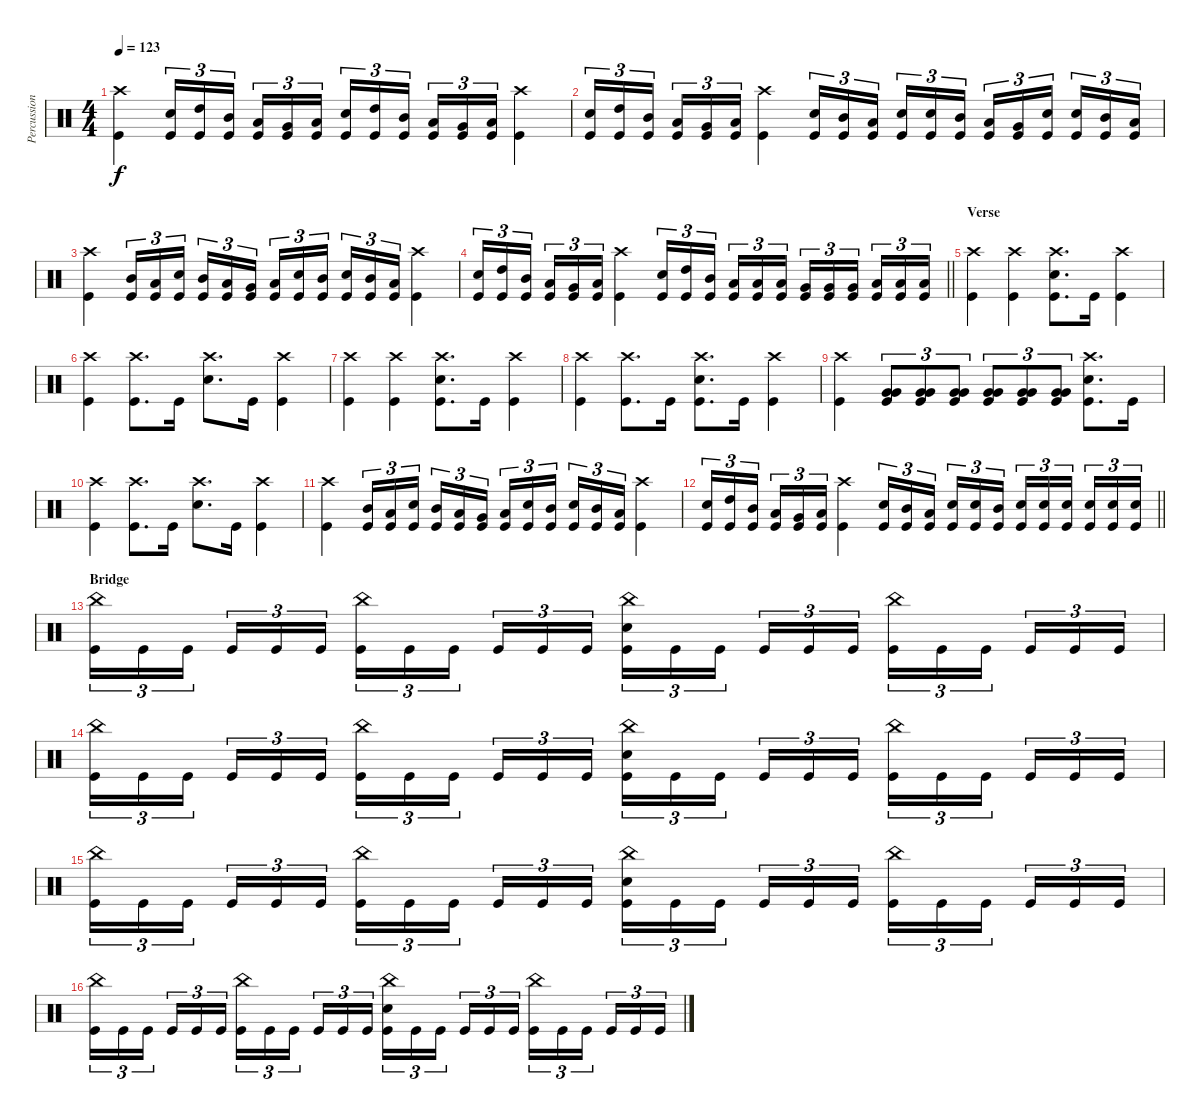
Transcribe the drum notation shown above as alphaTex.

\track ("Percussions" "Percussion") {instrument percussion}
\staff {score}
\articulation defaults
\ts (4 4)
\section ("" "")
\tempo 123
\clef neutral
\ks c
("Crash high (hit)" "Kick (hit)").4{dy f} ("Electric Snare (hit)" "Kick (hit)").16{tu (3 2)} ("High Tom (hit)" "Kick (hit)").16{tu (3 2)} ("Mid Tom (hit)" "Kick (hit)").16{tu (3 2) beam splitsecondary} ("Low Tom (hit)" "Kick (hit)").16{tu (3 2)} ("Very Low Tom (hit)" "Kick (hit)").16{tu (3 2)} ("Low Floor Tom (hit)" "Kick (hit)").16{tu (3 2)} ("Electric Snare (hit)" "Kick (hit)").16{tu (3 2)} ("High Tom (hit)" "Kick (hit)").16{tu (3 2)} ("Mid Tom (hit)" "Kick (hit)").16{tu (3 2) beam splitsecondary} ("Low Tom (hit)" "Kick (hit)").16{tu (3 2)} ("Very Low Tom (hit)" "Kick (hit)").16{tu (3 2)} ("Low Floor Tom (hit)" "Kick (hit)").16{tu (3 2)} ("Crash high (hit)" "Kick (hit)").4 |
("Electric Snare (hit)" "Kick (hit)").16{tu (3 2)} ("High Tom (hit)" "Kick (hit)").16{tu (3 2)} ("Mid Tom (hit)" "Kick (hit)").16{tu (3 2) beam splitsecondary} ("Low Tom (hit)" "Kick (hit)").16{tu (3 2)} ("Very Low Tom (hit)" "Kick (hit)").16{tu (3 2)} ("Low Floor Tom (hit)" "Kick (hit)").16{tu (3 2)} ("Crash high (hit)" "Kick (hit)").4 ("Electric Snare (hit)" "Kick (hit)").16{tu (3 2)} ("Mid Tom (hit)" "Kick (hit)").16{tu (3 2)} ("Low Tom (hit)" "Kick (hit)").16{tu (3 2) beam splitsecondary} ("Electric Snare (hit)" "Kick (hit)").16{tu (3 2)} ("Electric Snare (hit)" "Kick (hit)").16{tu (3 2)} ("Mid Tom (hit)" "Kick (hit)").16{tu (3 2)} ("Low Tom (hit)" "Kick (hit)").16{tu (3 2)} ("Very Low Tom (hit)" "Kick (hit)").16{tu (3 2)} ("Electric Snare (hit)" "Kick (hit)").16{tu (3 2) beam splitsecondary} ("Electric Snare (hit)" "Kick (hit)").16{tu (3 2)} ("Mid Tom (hit)" "Kick (hit)").16{tu (3 2)} ("Low Tom (hit)" "Kick (hit)").16{tu (3 2)} |
("Crash high (hit)" "Kick (hit)").4 ("Mid Tom (hit)" "Kick (hit)").16{tu (3 2)} ("Low Tom (hit)" "Kick (hit)").16{tu (3 2)} ("Electric Snare (hit)" "Kick (hit)").16{tu (3 2) beam splitsecondary} ("Mid Tom (hit)" "Kick (hit)").16{tu (3 2)} ("Low Tom (hit)" "Kick (hit)").16{tu (3 2)} ("Very Low Tom (hit)" "Kick (hit)").16{tu (3 2)} ("Low Floor Tom (hit)" "Kick (hit)").16{tu (3 2)} ("Electric Snare (hit)" "Kick (hit)").16{tu (3 2)} ("Mid Tom (hit)" "Kick (hit)").16{tu (3 2) beam splitsecondary} ("Electric Snare (hit)" "Kick (hit)").16{tu (3 2)} ("Mid Tom (hit)" "Kick (hit)").16{tu (3 2)} ("Low Tom (hit)" "Kick (hit)").16{tu (3 2)} ("Crash high (hit)" "Kick (hit)").4 |
\barLineRight lightlight
("Electric Snare (hit)" "Kick (hit)").16{tu (3 2)} ("High Tom (hit)" "Kick (hit)").16{tu (3 2)} ("Mid Tom (hit)" "Kick (hit)").16{tu (3 2) beam splitsecondary} ("Low Tom (hit)" "Kick (hit)").16{tu (3 2)} ("Very Low Tom (hit)" "Kick (hit)").16{tu (3 2)} ("Low Floor Tom (hit)" "Kick (hit)").16{tu (3 2)} ("Crash high (hit)" "Kick (hit)").4 ("Electric Snare (hit)" "Kick (hit)").16{tu (3 2)} ("High Tom (hit)" "Kick (hit)").16{tu (3 2)} ("Mid Tom (hit)" "Kick (hit)").16{tu (3 2) beam splitsecondary} ("Low Tom (hit)" "Kick (hit)").16{tu (3 2)} ("Low Tom (hit)" "Kick (hit)").16{tu (3 2)} ("Low Tom (hit)" "Kick (hit)").16{tu (3 2)} ("Very Low Tom (hit)" "Kick (hit)").16{tu (3 2)} ("Very Low Tom (hit)" "Kick (hit)").16{tu (3 2)} ("Very Low Tom (hit)" "Kick (hit)").16{tu (3 2) beam splitsecondary} ("Low Floor Tom (hit)" "Kick (hit)").16{tu (3 2)} ("Low Floor Tom (hit)" "Kick (hit)").16{tu (3 2)} ("Low Floor Tom (hit)" "Kick (hit)").16{tu (3 2)} |
\section ("" "Verse")
("Crash high (hit)" "Kick (hit)").4 ("Crash high (hit)" "Kick (hit)").4 ("Crash high (hit)" "Electric Snare (hit)" "Kick (hit)").8{d} "Kick (hit)".16 ("Crash high (hit)" "Kick (hit)").4 |
("Crash high (hit)" "Kick (hit)").4 ("Crash high (hit)" "Kick (hit)").8{d} "Kick (hit)".16 ("Crash high (hit)" "Electric Snare (hit)").8{d} "Kick (hit)".16 ("Crash high (hit)" "Kick (hit)").4 |
("Crash high (hit)" "Kick (hit)").4 ("Crash high (hit)" "Kick (hit)").4 ("Crash high (hit)" "Electric Snare (hit)" "Kick (hit)").8{d} "Kick (hit)".16 ("Crash high (hit)" "Kick (hit)").4 |
("Crash high (hit)" "Kick (hit)").4 ("Crash high (hit)" "Kick (hit)").8{d} "Kick (hit)".16 ("Crash high (hit)" "Electric Snare (hit)" "Kick (hit)").8{d} "Kick (hit)".16 ("Crash high (hit)" "Kick (hit)").4 |
("Crash high (hit)" "Kick (hit)").4 ("Very Low Tom (hit)" "Very Low Tom (hit)" "Kick (hit)").8{tu (3 2)} ("Very Low Tom (hit)" "Very Low Tom (hit)" "Kick (hit)").8{tu (3 2)} ("Very Low Tom (hit)" "Very Low Tom (hit)" "Kick (hit)").8{tu (3 2)} ("Very Low Tom (hit)" "Very Low Tom (hit)" "Kick (hit)").8{tu (3 2)} ("Very Low Tom (hit)" "Very Low Tom (hit)" "Kick (hit)").8{tu (3 2)} ("Very Low Tom (hit)" "Very Low Tom (hit)" "Kick (hit)").8{tu (3 2)} ("Crash high (hit)" "Electric Snare (hit)" "Kick (hit)").8{d} "Kick (hit)".16 |
("Crash high (hit)" "Kick (hit)").4 ("Crash high (hit)" "Kick (hit)").8{d} "Kick (hit)".16 ("Crash high (hit)" "Electric Snare (hit)").8{d} "Kick (hit)".16 ("Crash high (hit)" "Kick (hit)").4 |
("Crash high (hit)" "Kick (hit)").4 ("Mid Tom (hit)" "Kick (hit)").16{tu (3 2)} ("Low Tom (hit)" "Kick (hit)").16{tu (3 2)} ("Electric Snare (hit)" "Kick (hit)").16{tu (3 2) beam splitsecondary} ("Mid Tom (hit)" "Kick (hit)").16{tu (3 2)} ("Low Tom (hit)" "Kick (hit)").16{tu (3 2)} ("Very Low Tom (hit)" "Kick (hit)").16{tu (3 2)} ("Low Floor Tom (hit)" "Kick (hit)").16{tu (3 2)} ("Electric Snare (hit)" "Kick (hit)").16{tu (3 2)} ("Mid Tom (hit)" "Kick (hit)").16{tu (3 2) beam splitsecondary} ("Electric Snare (hit)" "Kick (hit)").16{tu (3 2)} ("Mid Tom (hit)" "Kick (hit)").16{tu (3 2)} ("Low Tom (hit)" "Kick (hit)").16{tu (3 2)} ("Crash high (hit)" "Kick (hit)").4 |
\barLineRight lightlight
("Electric Snare (hit)" "Kick (hit)").16{tu (3 2)} ("High Tom (hit)" "Kick (hit)").16{tu (3 2)} ("Mid Tom (hit)" "Kick (hit)").16{tu (3 2) beam splitsecondary} ("Low Tom (hit)" "Kick (hit)").16{tu (3 2)} ("Very Low Tom (hit)" "Kick (hit)").16{tu (3 2)} ("Low Floor Tom (hit)" "Kick (hit)").16{tu (3 2)} ("Crash high (hit)" "Kick (hit)").4 ("Electric Snare (hit)" "Kick (hit)").16{tu (3 2)} ("Mid Tom (hit)" "Kick (hit)").16{tu (3 2)} ("Low Tom (hit)" "Kick (hit)").16{tu (3 2) beam splitsecondary} ("Electric Snare (hit)" "Kick (hit)").16{tu (3 2)} ("Electric Snare (hit)" "Kick (hit)").16{tu (3 2)} ("Mid Tom (hit)" "Kick (hit)").16{tu (3 2)} ("Electric Snare (hit)" "Kick (hit)").16{tu (3 2)} ("Electric Snare (hit)" "Kick (hit)").16{tu (3 2)} ("Electric Snare (hit)" "Kick (hit)").16{tu (3 2) beam splitsecondary} ("Electric Snare (hit)" "Kick (hit)").16{tu (3 2)} ("Electric Snare (hit)" "Kick (hit)").16{tu (3 2)} ("Electric Snare (hit)" "Kick (hit)").16{tu (3 2)} |
\section ("" "Bridge")
("China (hit)" "Kick (hit)").16{tu (3 2)} "Kick (hit)".16{tu (3 2)} "Kick (hit)".16{tu (3 2) beam splitsecondary} "Kick (hit)".16{tu (3 2)} "Kick (hit)".16{tu (3 2)} "Kick (hit)".16{tu (3 2)} ("China (hit)" "Kick (hit)").16{tu (3 2)} "Kick (hit)".16{tu (3 2)} "Kick (hit)".16{tu (3 2) beam splitsecondary} "Kick (hit)".16{tu (3 2)} "Kick (hit)".16{tu (3 2)} "Kick (hit)".16{tu (3 2)} ("China (hit)" "Electric Snare (hit)" "Kick (hit)").16{tu (3 2)} "Kick (hit)".16{tu (3 2)} "Kick (hit)".16{tu (3 2) beam splitsecondary} "Kick (hit)".16{tu (3 2)} "Kick (hit)".16{tu (3 2)} "Kick (hit)".16{tu (3 2)} ("China (hit)" "Kick (hit)").16{tu (3 2)} "Kick (hit)".16{tu (3 2)} "Kick (hit)".16{tu (3 2) beam splitsecondary} "Kick (hit)".16{tu (3 2)} "Kick (hit)".16{tu (3 2)} "Kick (hit)".16{tu (3 2)} |
("China (hit)" "Kick (hit)").16{tu (3 2)} "Kick (hit)".16{tu (3 2)} "Kick (hit)".16{tu (3 2) beam splitsecondary} "Kick (hit)".16{tu (3 2)} "Kick (hit)".16{tu (3 2)} "Kick (hit)".16{tu (3 2)} ("China (hit)" "Kick (hit)").16{tu (3 2)} "Kick (hit)".16{tu (3 2)} "Kick (hit)".16{tu (3 2) beam splitsecondary} "Kick (hit)".16{tu (3 2)} "Kick (hit)".16{tu (3 2)} "Kick (hit)".16{tu (3 2)} ("China (hit)" "Electric Snare (hit)" "Kick (hit)").16{tu (3 2)} "Kick (hit)".16{tu (3 2)} "Kick (hit)".16{tu (3 2) beam splitsecondary} "Kick (hit)".16{tu (3 2)} "Kick (hit)".16{tu (3 2)} "Kick (hit)".16{tu (3 2)} ("China (hit)" "Kick (hit)").16{tu (3 2)} "Kick (hit)".16{tu (3 2)} "Kick (hit)".16{tu (3 2) beam splitsecondary} "Kick (hit)".16{tu (3 2)} "Kick (hit)".16{tu (3 2)} "Kick (hit)".16{tu (3 2)} |
("China (hit)" "Kick (hit)").16{tu (3 2)} "Kick (hit)".16{tu (3 2)} "Kick (hit)".16{tu (3 2) beam splitsecondary} "Kick (hit)".16{tu (3 2)} "Kick (hit)".16{tu (3 2)} "Kick (hit)".16{tu (3 2)} ("China (hit)" "Kick (hit)").16{tu (3 2)} "Kick (hit)".16{tu (3 2)} "Kick (hit)".16{tu (3 2) beam splitsecondary} "Kick (hit)".16{tu (3 2)} "Kick (hit)".16{tu (3 2)} "Kick (hit)".16{tu (3 2)} ("China (hit)" "Electric Snare (hit)" "Kick (hit)").16{tu (3 2)} "Kick (hit)".16{tu (3 2)} "Kick (hit)".16{tu (3 2) beam splitsecondary} "Kick (hit)".16{tu (3 2)} "Kick (hit)".16{tu (3 2)} "Kick (hit)".16{tu (3 2)} ("China (hit)" "Kick (hit)").16{tu (3 2)} "Kick (hit)".16{tu (3 2)} "Kick (hit)".16{tu (3 2) beam splitsecondary} "Kick (hit)".16{tu (3 2)} "Kick (hit)".16{tu (3 2)} "Kick (hit)".16{tu (3 2)} |
("China (hit)" "Kick (hit)").16{tu (3 2)} "Kick (hit)".16{tu (3 2)} "Kick (hit)".16{tu (3 2) beam splitsecondary} "Kick (hit)".16{tu (3 2)} "Kick (hit)".16{tu (3 2)} "Kick (hit)".16{tu (3 2)} ("China (hit)" "Kick (hit)").16{tu (3 2)} "Kick (hit)".16{tu (3 2)} "Kick (hit)".16{tu (3 2) beam splitsecondary} "Kick (hit)".16{tu (3 2)} "Kick (hit)".16{tu (3 2)} "Kick (hit)".16{tu (3 2)} ("China (hit)" "Electric Snare (hit)" "Kick (hit)").16{tu (3 2)} "Kick (hit)".16{tu (3 2)} "Kick (hit)".16{tu (3 2) beam splitsecondary} "Kick (hit)".16{tu (3 2)} "Kick (hit)".16{tu (3 2)} "Kick (hit)".16{tu (3 2)} ("China (hit)" "Kick (hit)").16{tu (3 2)} "Kick (hit)".16{tu (3 2)} "Kick (hit)".16{tu (3 2) beam splitsecondary} "Kick (hit)".16{tu (3 2)} "Kick (hit)".16{tu (3 2)} "Kick (hit)".16{tu (3 2)}
